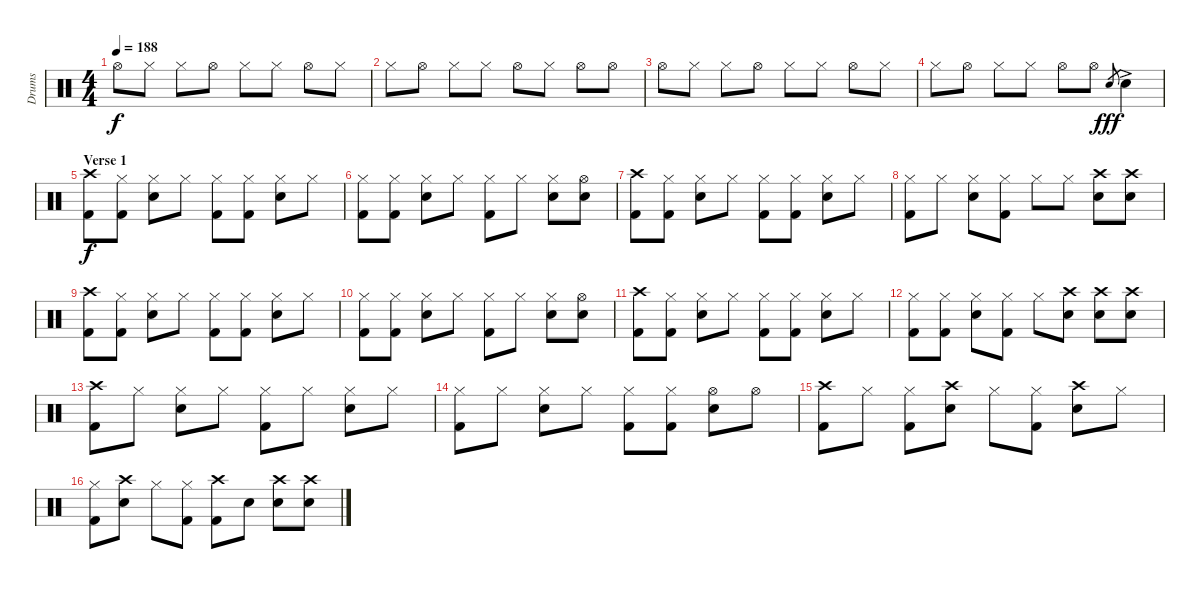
\track ("Drums" "Drums") {instrument percussion}
\staff {score}
\articulation defaults
\ts (4 4)
\tempo 188
\clef neutral
\ks c "Hi-Hat (open)".8{dy f} "Hi-Hat (closed)".8 "Hi-Hat (closed)".8 "Hi-Hat (open)".8 "Hi-Hat (closed)".8 "Hi-Hat (closed)".8 "Hi-Hat (open)".8 "Hi-Hat (closed)".8
|
"Hi-Hat (closed)".8 "Hi-Hat (open)".8 "Hi-Hat (closed)".8 "Hi-Hat (closed)".8 "Hi-Hat (open)".8 "Hi-Hat (closed)".8 "Hi-Hat (open)".8 "Hi-Hat (open)".8 |
"Hi-Hat (open)".8 "Hi-Hat (closed)".8 "Hi-Hat (closed)".8 "Hi-Hat (open)".8 "Hi-Hat (closed)".8 "Hi-Hat (closed)".8 "Hi-Hat (open)".8 "Hi-Hat (closed)".8 |
"Hi-Hat (closed)".8 "Hi-Hat (open)".8 "Hi-Hat (closed)".8 "Hi-Hat (closed)".8 "Hi-Hat (open)".8 "Hi-Hat (open)".8 "Snare (hit) 2".8{gr dy fff} "Snare (hit) 2"{ac}.4 |
\section ("" "Verse 1")
("Crash high (hit)" "Kick (hit) 2").8{dy f} ("Hi-Hat (closed)" "Kick (hit) 2").8 ("Hi-Hat (closed)" "Snare (hit) 2").8 "Hi-Hat (closed)".8 ("Hi-Hat (closed)" "Kick (hit) 2").8 ("Hi-Hat (closed)" "Kick (hit) 2").8 ("Hi-Hat (closed)" "Snare (hit) 2").8 "Hi-Hat (closed)".8 |
("Hi-Hat (closed)" "Kick (hit) 2").8 ("Hi-Hat (closed)" "Kick (hit) 2").8 ("Hi-Hat (closed)" "Snare (hit) 2").8 "Hi-Hat (closed)".8 ("Hi-Hat (closed)" "Kick (hit) 2").8 "Hi-Hat (closed)".8 ("Hi-Hat (closed)" "Snare (hit) 2").8 ("Hi-Hat (open)" "Snare (hit) 2").8 |
("Crash high (hit)" "Kick (hit) 2").8 ("Hi-Hat (closed)" "Kick (hit) 2").8 ("Hi-Hat (closed)" "Snare (hit) 2").8 "Hi-Hat (closed)".8 ("Hi-Hat (closed)" "Kick (hit) 2").8 ("Hi-Hat (closed)" "Kick (hit) 2").8 ("Hi-Hat (closed)" "Snare (hit) 2").8 "Hi-Hat (closed)".8 |
("Hi-Hat (closed)" "Kick (hit) 2").8 "Hi-Hat (closed)".8 ("Hi-Hat (closed)" "Snare (hit) 2").8 ("Hi-Hat (closed)" "Kick (hit) 2").8 "Hi-Hat (closed)".8 "Hi-Hat (closed)".8 ("Crash high (hit)" "Snare (hit) 2").8 ("Crash high (hit)" "Snare (hit) 2").8 |
("Crash high (hit)" "Kick (hit) 2").8 ("Hi-Hat (closed)" "Kick (hit) 2").8 ("Hi-Hat (closed)" "Snare (hit) 2").8 "Hi-Hat (closed)".8 ("Hi-Hat (closed)" "Kick (hit) 2").8 ("Hi-Hat (closed)" "Kick (hit) 2").8 ("Hi-Hat (closed)" "Snare (hit) 2").8 "Hi-Hat (closed)".8 |
("Hi-Hat (closed)" "Kick (hit) 2").8 ("Hi-Hat (closed)" "Kick (hit) 2").8 ("Hi-Hat (closed)" "Snare (hit) 2").8 "Hi-Hat (closed)".8 ("Hi-Hat (closed)" "Kick (hit) 2").8 "Hi-Hat (closed)".8 ("Hi-Hat (closed)" "Snare (hit) 2").8 ("Hi-Hat (open)" "Snare (hit) 2").8 |
("Crash high (hit)" "Kick (hit) 2").8 ("Hi-Hat (closed)" "Kick (hit) 2").8 ("Hi-Hat (closed)" "Snare (hit) 2").8 "Hi-Hat (closed)".8 ("Hi-Hat (closed)" "Kick (hit) 2").8 ("Hi-Hat (closed)" "Kick (hit) 2").8 ("Hi-Hat (closed)" "Snare (hit) 2").8 "Hi-Hat (closed)".8 |
("Hi-Hat (closed)" "Kick (hit) 2").8 ("Hi-Hat (closed)" "Kick (hit) 2").8 ("Hi-Hat (closed)" "Snare (hit) 2").8 ("Hi-Hat (closed)" "Kick (hit) 2").8 "Hi-Hat (closed)".8 ("Crash high (hit)" "Snare (hit) 2").8 ("Crash high (hit)" "Snare (hit) 2").8 ("Crash high (hit)" "Snare (hit) 2").8 |
("Crash high (hit)" "Kick (hit) 2").8 "Hi-Hat (closed)".8 ("Hi-Hat (closed)" "Snare (hit) 2").8 "Hi-Hat (closed)".8 ("Hi-Hat (closed)" "Kick (hit) 2").8 "Hi-Hat (closed)".8 ("Hi-Hat (closed)" "Snare (hit) 2").8 "Hi-Hat (closed)".8 |
("Hi-Hat (closed)" "Kick (hit) 2").8 "Hi-Hat (closed)".8 ("Hi-Hat (closed)" "Snare (hit) 2").8 "Hi-Hat (closed)".8 ("Hi-Hat (closed)" "Kick (hit) 2").8 ("Hi-Hat (closed)" "Kick (hit) 2").8 ("Hi-Hat (open)" "Snare (hit) 2").8 "Hi-Hat (open)".8 |
("Crash high (hit)" "Kick (hit) 2").8 "Hi-Hat (closed)".8 ("Hi-Hat (closed)" "Kick (hit) 2").8 ("Crash high (hit)" "Snare (hit) 2").8 "Hi-Hat (closed)".8 ("Hi-Hat (closed)" "Kick (hit) 2").8 ("Crash high (hit)" "Snare (hit) 2").8 "Hi-Hat (closed)".8 |
("Hi-Hat (closed)" "Kick (hit) 2").8 ("Crash high (hit)" "Snare (hit) 2").8 "Hi-Hat (closed)".8 ("Hi-Hat (closed)" "Kick (hit) 2").8 ("Crash high (hit)" "Kick (hit) 2").8 "Snare (hit) 2".8 ("Crash high (hit)" "Snare (hit) 2").8 ("Crash high (hit)" "Snare (hit) 2").8
